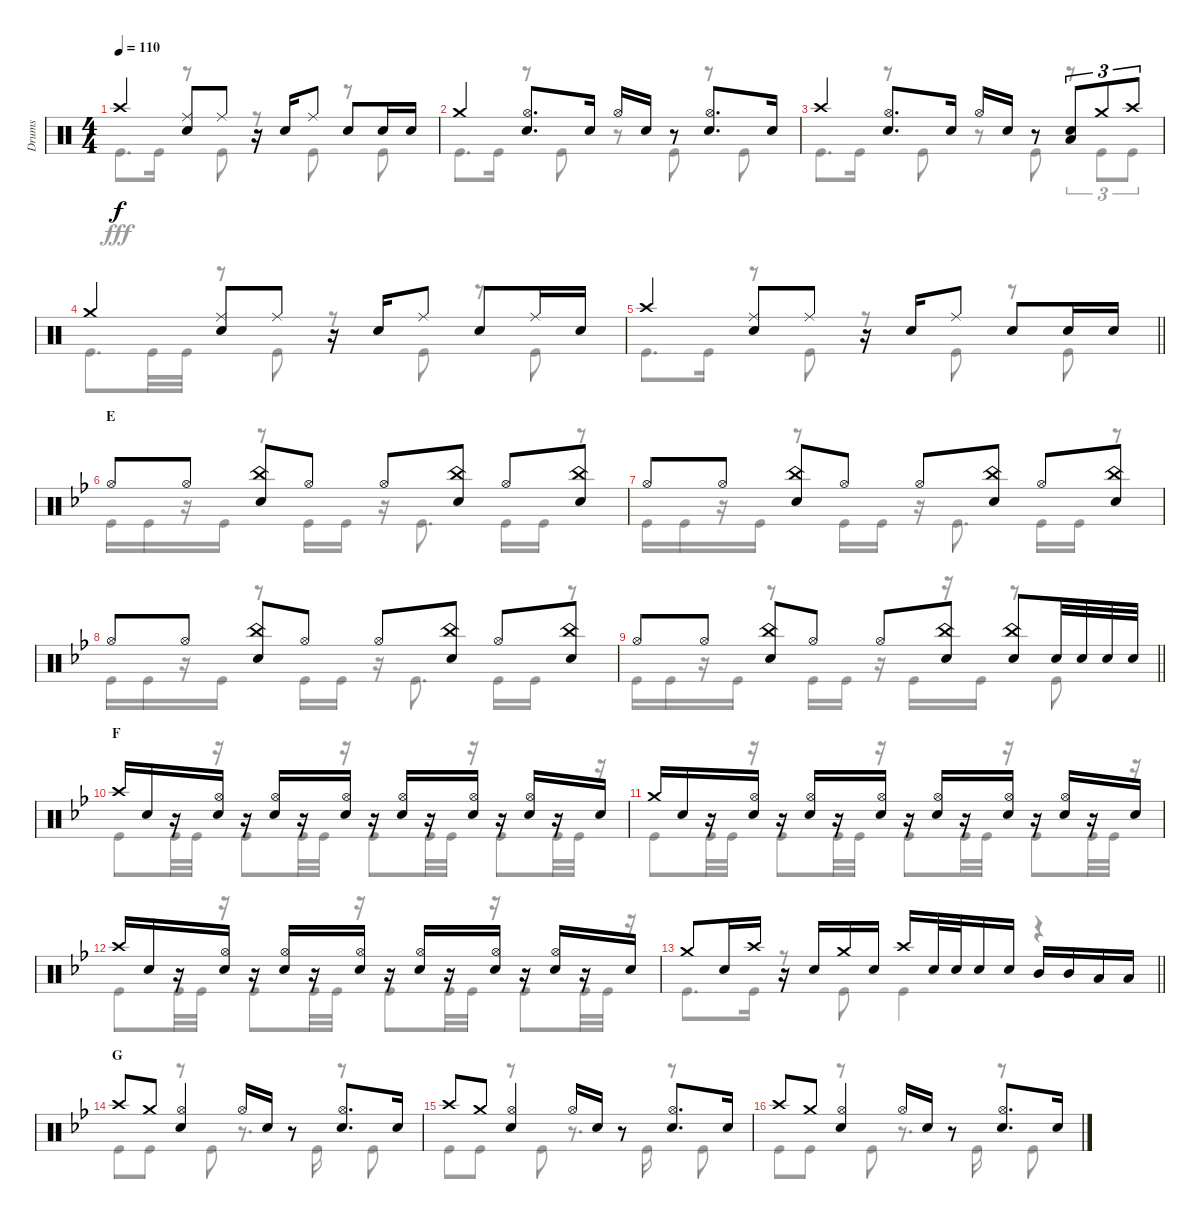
\track ("Drums" "Drums") {instrument percussion}
\staff {score}
\articulation defaults
\voice
\ts (4 4)
\tempo 110
\clef neutral
\ks c "Crash high (hit)".4{dy f}
("Ride (middle)" "Snare (hit) 2").8 "Ride (middle)".8 r.16 "Snare (hit) 2".16 "Ride (middle)".8 "Snare (hit) 2".8 "Snare (hit) 2".16 "Snare (hit) 2".16 |
"Crash medium (hit)".4 ("Hi-Hat (open)" "Snare (hit) 2").8{d} "Snare (hit) 2".16 "Hi-Hat (open)".16 "Snare (hit) 2".16 r.8 ("Hi-Hat (open)" "Snare (hit) 2").8{d} "Snare (hit) 2".16 |
"Crash high (hit)".4 ("Hi-Hat (open)" "Snare (hit) 2").8{d} "Snare (hit) 2".16 "Hi-Hat (open)".16 "Snare (hit) 2".16 r.8 ("Snare (hit) 2" "Low Tom (hit)").8{tu (3 2)} "Crash medium (hit)".8{tu (3 2)} "Crash high (hit)".8{tu (3 2)} |
"Crash medium (hit)".4 ("Ride (middle)" "Snare (hit) 2").8 "Ride (middle)".8 r.16 "Snare (hit) 2".16 "Ride (middle)".8 "Snare (hit) 2".8 "Ride (middle)".16 "Snare (hit) 2".16 |
\barLineRight lightlight "Crash high (hit)".4
("Ride (middle)" "Snare (hit) 2").8 "Ride (middle)".8 r.16 "Snare (hit) 2".16 "Ride (middle)".8 "Snare (hit) 2".8 "Snare (hit) 2".16 "Snare (hit) 2".16 |
\section ("" "E")
\ks bb "Hi-Hat (open)".8 "Hi-Hat (open)".8
("China (hit)" "Snare (hit) 2").8 "Hi-Hat (open)".8 "Hi-Hat (open)".8 ("China (hit)" "Snare (hit) 2").8 "Hi-Hat (open)".8 ("China (hit)" "Snare (hit) 2").8 |
"Hi-Hat (open)".8 "Hi-Hat (open)".8 ("China (hit)" "Snare (hit) 2").8 "Hi-Hat (open)".8 "Hi-Hat (open)".8 ("China (hit)" "Snare (hit) 2").8 "Hi-Hat (open)".8 ("China (hit)" "Snare (hit) 2").8 |
"Hi-Hat (open)".8 "Hi-Hat (open)".8 ("China (hit)" "Snare (hit) 2").8 "Hi-Hat (open)".8 "Hi-Hat (open)".8 ("China (hit)" "Snare (hit) 2").8 "Hi-Hat (open)".8 ("China (hit)" "Snare (hit) 2").8 |
\barLineRight lightlight "Hi-Hat (open)".8 "Hi-Hat (open)".8
("China (hit)" "Snare (hit) 2").8 "Hi-Hat (open)".8 "Hi-Hat (open)".8 ("China (hit)" "Snare (hit) 2").8 ("China (hit)" "Snare (hit) 2").8 "Snare (hit) 2".32 "Snare (hit) 2".32 "Snare (hit) 2".32 "Snare (hit) 2".32 |
\section ("" "F")
"Crash high (hit)".16 "Snare (hit) 2".16 r.16 ("Hi-Hat (open)" "Snare (hit) 2").16 r.16 ("Hi-Hat (open)" "Snare (hit) 2").16 r.16 ("Hi-Hat (open)" "Snare (hit) 2").16 r.16 ("Hi-Hat (open)" "Snare (hit) 2").16 r.16 ("Hi-Hat (open)" "Snare (hit) 2").16 r.16 ("Hi-Hat (open)" "Snare (hit) 2").16 r.16 "Snare (hit) 2".16 |
"Crash medium (hit)".16 "Snare (hit) 2".16 r.16 ("Hi-Hat (open)" "Snare (hit) 2").16 r.16 ("Hi-Hat (open)" "Snare (hit) 2").16 r.16 ("Hi-Hat (open)" "Snare (hit) 2").16 r.16 ("Hi-Hat (open)" "Snare (hit) 2").16 r.16 ("Hi-Hat (open)" "Snare (hit) 2").16 r.16 ("Hi-Hat (open)" "Snare (hit) 2").16 r.16 "Snare (hit) 2".16 |
"Crash high (hit)".16 "Snare (hit) 2".16 r.16 ("Hi-Hat (open)" "Snare (hit) 2").16 r.16 ("Hi-Hat (open)" "Snare (hit) 2").16 r.16 ("Hi-Hat (open)" "Snare (hit) 2").16 r.16 ("Hi-Hat (open)" "Snare (hit) 2").16 r.16 ("Hi-Hat (open)" "Snare (hit) 2").16 r.16 ("Hi-Hat (open)" "Snare (hit) 2").16 r.16 "Snare (hit) 2".16 |
\barLineRight lightlight "Crash medium (hit)".8 "Snare (hit) 2".16 "Crash high (hit)".16
r.16 "Snare (hit) 2".16 "Crash medium (hit)".16 "Snare (hit) 2".16 "Crash high (hit)".16 "Snare (hit) 2".32 "Snare (hit) 2".32 "Snare (hit) 2".16 "Snare (hit) 2".16 "Mid Tom (hit)".16 "Mid Tom (hit)".16 "Low Tom (hit)".16 "Low Tom (hit)".16 |
\section ("" "G")
"Crash high (hit)".8 "Crash medium (hit)".8 ("Hi-Hat (open)" "Snare (hit) 2").4 "Hi-Hat (open)".16 "Snare (hit) 2".16 r.8 ("Hi-Hat (open)" "Snare (hit) 2").8{d} "Snare (hit) 2".16 |
"Crash high (hit)".8 "Crash medium (hit)".8 ("Hi-Hat (open)" "Snare (hit) 2").4 "Hi-Hat (open)".16 "Snare (hit) 2".16 r.8 ("Hi-Hat (open)" "Snare (hit) 2").8{d} "Snare (hit) 2".16 |
"Crash high (hit)".8 "Crash medium (hit)".8 ("Hi-Hat (open)" "Snare (hit) 2").4 "Hi-Hat (open)".16 "Snare (hit) 2".16 r.8 ("Hi-Hat (open)" "Snare (hit) 2").8{d} "Snare (hit) 2".16
\voice
\clef neutral
\ottava regular
\simile none
\ks c "Kick (hit)".8{d dy fff} "Kick (hit)".16
r.8 "Kick (hit)".8 r.8 "Kick (hit)".8 r.8 "Kick (hit)".8 |
"Kick (hit)".8{d} "Kick (hit)".16 r.8 "Kick (hit)".8 r.8 "Kick (hit)".8 r.8 "Kick (hit)".8 |
"Kick (hit)".8{d} "Kick (hit)".16 r.8 "Kick (hit)".8 r.8 "Kick (hit)".8 r.8{tu (3 2)} "Kick (hit)".8{tu (3 2)} "Kick (hit)".8{tu (3 2)} |
"Kick (hit)".8{d} "Kick (hit)".32 "Kick (hit)".32 r.8 "Kick (hit)".8 r.8 "Kick (hit)".8 r.8 "Kick (hit)".8 |
\barLineRight lightlight "Kick (hit)".8{d} "Kick (hit)".16
r.8 "Kick (hit)".8 r.8 "Kick (hit)".8 r.8 "Kick (hit)".8 |
\ks bb "Kick (hit)".16 "Kick (hit)".16
r.16 "Kick (hit)".16 r.8 "Kick (hit)".16 "Kick (hit)".16 r.16 "Kick (hit)".8{d} "Kick (hit)".16 "Kick (hit)".16 r.8 |
"Kick (hit)".16 "Kick (hit)".16 r.16 "Kick (hit)".16 r.8 "Kick (hit)".16 "Kick (hit)".16 r.16 "Kick (hit)".8{d} "Kick (hit)".16 "Kick (hit)".16 r.8 |
"Kick (hit)".16 "Kick (hit)".16 r.16 "Kick (hit)".16 r.8 "Kick (hit)".16 "Kick (hit)".16 r.16 "Kick (hit)".8{d} "Kick (hit)".16 "Kick (hit)".16 r.8 |
\barLineRight lightlight "Kick (hit)".16 "Kick (hit)".16
r.16 "Kick (hit)".16 r.8 "Kick (hit)".16 "Kick (hit)".16 r.16 "Kick (hit)".16 r.16 "Kick (hit)".16 r.8 "Kick (hit)".8 |
"Kick (hit)".8 "Kick (hit)".32 "Kick (hit)".32 r.16 "Kick (hit)".8 "Kick (hit)".32 "Kick (hit)".32 r.16 "Kick (hit)".8 "Kick (hit)".32 "Kick (hit)".32 r.16 "Kick (hit)".8 "Kick (hit)".32 "Kick (hit)".32 r.16 |
"Kick (hit)".8 "Kick (hit)".32 "Kick (hit)".32 r.16 "Kick (hit)".8 "Kick (hit)".32 "Kick (hit)".32 r.16 "Kick (hit)".8 "Kick (hit)".32 "Kick (hit)".32 r.16 "Kick (hit)".8 "Kick (hit)".32 "Kick (hit)".32 r.16 |
"Kick (hit)".8 "Kick (hit)".32 "Kick (hit)".32 r.16 "Kick (hit)".8 "Kick (hit)".32 "Kick (hit)".32 r.16 "Kick (hit)".8 "Kick (hit)".32 "Kick (hit)".32 r.16 "Kick (hit)".8 "Kick (hit)".32 "Kick (hit)".32 r.16 |
\barLineRight lightlight "Kick (hit)".8{d} "Kick (hit)".16
r.8 "Kick (hit)".8 "Kick (hit)".4 r.4 |
"Kick (hit)".8 "Kick (hit)".8 r.8 "Kick (hit)".8 r.8{d} "Kick (hit)".16 r.8 "Kick (hit)".8 |
"Kick (hit)".8 "Kick (hit)".8 r.8 "Kick (hit)".8 r.8{d} "Kick (hit)".16 r.8 "Kick (hit)".8 |
"Kick (hit)".8 "Kick (hit)".8 r.8 "Kick (hit)".8 r.8{d} "Kick (hit)".16 r.8 "Kick (hit)".8
